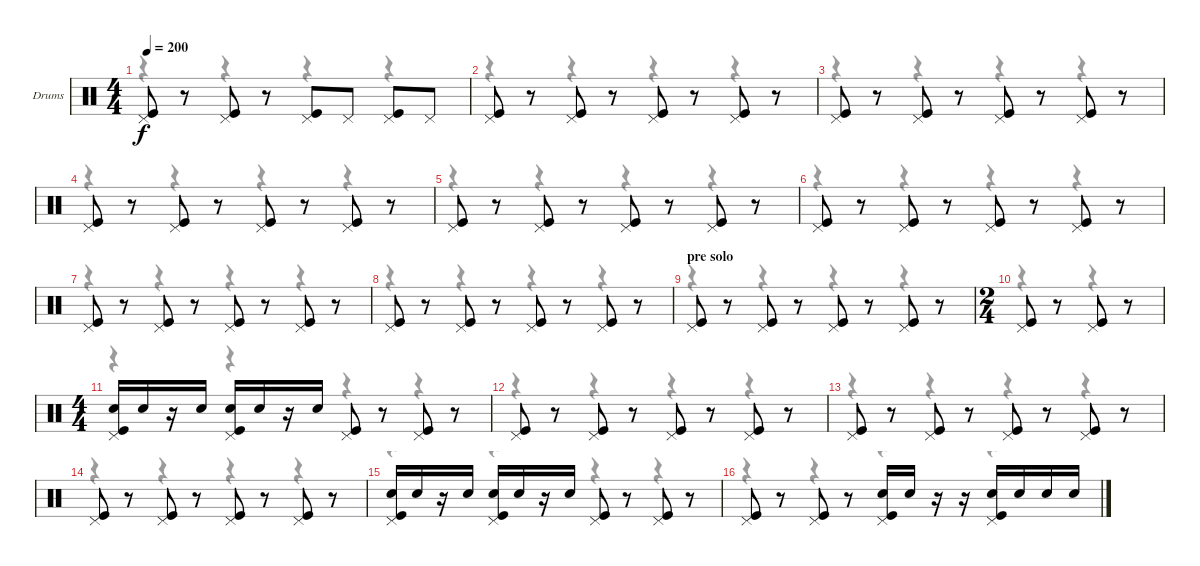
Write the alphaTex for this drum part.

\bracketExtendMode nobrackets
\firstSystemTrackNameOrientation horizontal
\otherSystemsTrackNameOrientation horizontal
\track ("Drumkit" "Drums") {instrument percussion}
\staff {score}
\articulation defaults
\voice
\ts (4 4)
\tempo 200
\clef neutral
\ks c
("Kick (hit)" "Pedal Hi-Hat (hit)").8{dy f} r.8 ("Kick (hit)" "Pedal Hi-Hat (hit)").8 r.8 ("Pedal Hi-Hat (hit)" "Kick (hit)").8 "Pedal Hi-Hat (hit)".8 ("Pedal Hi-Hat (hit)" "Kick (hit)").8 "Pedal Hi-Hat (hit)".8 |
("Pedal Hi-Hat (hit)" "Kick (hit)").8 r.8 ("Pedal Hi-Hat (hit)" "Kick (hit)").8 r.8 ("Pedal Hi-Hat (hit)" "Kick (hit)").8 r.8 ("Pedal Hi-Hat (hit)" "Kick (hit)").8 r.8 |
("Pedal Hi-Hat (hit)" "Kick (hit)").8 r.8 ("Pedal Hi-Hat (hit)" "Kick (hit)").8 r.8 ("Pedal Hi-Hat (hit)" "Kick (hit)").8 r.8 ("Pedal Hi-Hat (hit)" "Kick (hit)").8 r.8 |
("Pedal Hi-Hat (hit)" "Kick (hit)").8 r.8 ("Pedal Hi-Hat (hit)" "Kick (hit)").8 r.8 ("Pedal Hi-Hat (hit)" "Kick (hit)").8 r.8 ("Pedal Hi-Hat (hit)" "Kick (hit)").8 r.8 |
("Pedal Hi-Hat (hit)" "Kick (hit)").8 r.8 ("Pedal Hi-Hat (hit)" "Kick (hit)").8 r.8 ("Pedal Hi-Hat (hit)" "Kick (hit)").8 r.8 ("Pedal Hi-Hat (hit)" "Kick (hit)").8 r.8 |
("Pedal Hi-Hat (hit)" "Kick (hit)").8 r.8 ("Pedal Hi-Hat (hit)" "Kick (hit)").8 r.8 ("Pedal Hi-Hat (hit)" "Kick (hit)").8 r.8 ("Pedal Hi-Hat (hit)" "Kick (hit)").8 r.8 |
("Pedal Hi-Hat (hit)" "Kick (hit)").8 r.8 ("Pedal Hi-Hat (hit)" "Kick (hit)").8 r.8 ("Pedal Hi-Hat (hit)" "Kick (hit)").8 r.8 ("Pedal Hi-Hat (hit)" "Kick (hit)").8 r.8 |
("Pedal Hi-Hat (hit)" "Kick (hit)").8 r.8 ("Pedal Hi-Hat (hit)" "Kick (hit)").8 r.8 ("Pedal Hi-Hat (hit)" "Kick (hit)").8 r.8 ("Pedal Hi-Hat (hit)" "Kick (hit)").8 r.8 |
\section ("" "pre solo")
("Pedal Hi-Hat (hit)" "Kick (hit)").8 r.8 ("Pedal Hi-Hat (hit)" "Kick (hit)").8 r.8 ("Pedal Hi-Hat (hit)" "Kick (hit)").8 r.8 ("Pedal Hi-Hat (hit)" "Kick (hit)").8 r.8 |
\ts (2 4)
\beaming (8 1 1 1 1)
("Pedal Hi-Hat (hit)" "Kick (hit)").8 r.8 ("Pedal Hi-Hat (hit)" "Kick (hit)").8 r.8 |
\ts (4 4)
\beaming (8 2 2 2 2)
("Pedal Hi-Hat (hit)" "Kick (hit)" "Snare (hit) 2").16 "Snare (hit) 2".16 r.16 "Snare (hit) 2".16 ("Pedal Hi-Hat (hit)" "Kick (hit)" "Snare (hit) 2").16 "Snare (hit) 2".16 r.16 "Snare (hit) 2".16 ("Pedal Hi-Hat (hit)" "Kick (hit)").8 r.8 ("Pedal Hi-Hat (hit)" "Kick (hit)").8 r.8 |
("Pedal Hi-Hat (hit)" "Kick (hit)").8 r.8 ("Pedal Hi-Hat (hit)" "Kick (hit)").8 r.8 ("Pedal Hi-Hat (hit)" "Kick (hit)").8 r.8 ("Pedal Hi-Hat (hit)" "Kick (hit)").8 r.8 |
("Pedal Hi-Hat (hit)" "Kick (hit)").8 r.8 ("Pedal Hi-Hat (hit)" "Kick (hit)").8 r.8 ("Pedal Hi-Hat (hit)" "Kick (hit)").8 r.8 ("Pedal Hi-Hat (hit)" "Kick (hit)").8 r.8 |
("Pedal Hi-Hat (hit)" "Kick (hit)").8 r.8 ("Pedal Hi-Hat (hit)" "Kick (hit)").8 r.8 ("Pedal Hi-Hat (hit)" "Kick (hit)").8 r.8 ("Pedal Hi-Hat (hit)" "Kick (hit)").8 r.8 |
("Pedal Hi-Hat (hit)" "Kick (hit)" "Snare (hit) 2").16 "Snare (hit) 2".16 r.16 "Snare (hit) 2".16 ("Pedal Hi-Hat (hit)" "Kick (hit)" "Snare (hit) 2").16 "Snare (hit) 2".16 r.16 "Snare (hit) 2".16 ("Pedal Hi-Hat (hit)" "Kick (hit)").8 r.8 ("Pedal Hi-Hat (hit)" "Kick (hit)").8 r.8 |
("Pedal Hi-Hat (hit)" "Kick (hit)").8 r.8 ("Pedal Hi-Hat (hit)" "Kick (hit)").8 r.8 ("Pedal Hi-Hat (hit)" "Kick (hit)" "Snare (hit) 2").16 "Snare (hit) 2".16 r.16 r.16 ("Pedal Hi-Hat (hit)" "Kick (hit)" "Snare (hit) 2").16 "Snare (hit) 2".16 "Snare (hit) 2".16 "Snare (hit) 2".16
\voice
\clef neutral
\ottava regular
\simile none
\ks c
r.4{dy mf} r.4 r.4 r.4 |
r.4 r.4 r.4 r.4 |
r.4 r.4 r.4 r.4 |
r.4 r.4 r.4 r.4 |
r.4 r.4 r.4 r.4 |
r.4 r.4 r.4 r.4 |
r.4 r.4 r.4 r.4 |
r.4 r.4 r.4 r.4 |
r.4 r.4 r.4 r.4 |
r.4 r.4 |
r.4 r.4 r.4 r.4 |
r.4 r.4 r.4 r.4 |
r.4 r.4 r.4 r.4 |
r.4 r.4 r.4 r.4 |
r.4 r.4 r.4 r.4 |
r.4 r.4 r.4 r.4
